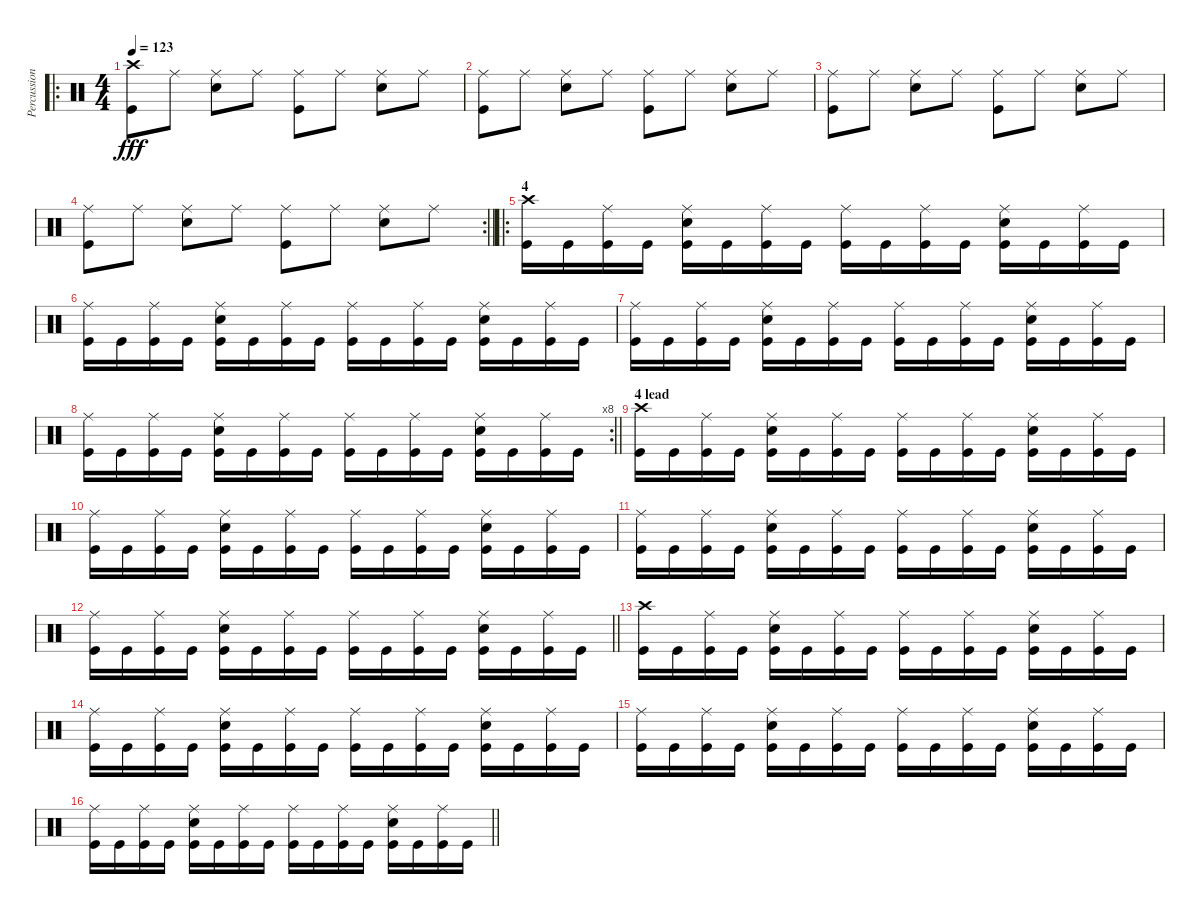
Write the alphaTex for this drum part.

\track ("Percussion" "Percussion") {instrument percussion}
\staff {score}
\articulation defaults
\ro
\ts (4 4)
\section ("" "")
\tempo 123
\clef neutral
\ks c
("Crash high (hit)" "Kick (hit)").8{dy fff} "Ride (middle)".8 ("Ride (middle)" "Snare (hit) 2").8 "Ride (middle)".8 ("Ride (middle)" "Kick (hit)").8 "Ride (middle)".8 ("Ride (middle)" "Snare (hit) 2").8 "Ride (middle)".8 |
("Ride (middle)" "Kick (hit)").8 "Ride (middle)".8 ("Ride (middle)" "Snare (hit) 2").8 "Ride (middle)".8 ("Ride (middle)" "Kick (hit)").8 "Ride (middle)".8 ("Ride (middle)" "Snare (hit) 2").8 "Ride (middle)".8 |
("Ride (middle)" "Kick (hit)").8 "Ride (middle)".8 ("Ride (middle)" "Snare (hit) 2").8 "Ride (middle)".8 ("Ride (middle)" "Kick (hit)").8 "Ride (middle)".8 ("Ride (middle)" "Snare (hit) 2").8 "Ride (middle)".8 |
\rc 2
\barLineRight lightlight
("Ride (middle)" "Kick (hit)").8 "Ride (middle)".8 ("Ride (middle)" "Snare (hit) 2").8 "Ride (middle)".8 ("Ride (middle)" "Kick (hit)").8 "Ride (middle)".8 ("Ride (middle)" "Snare (hit) 2").8 "Ride (middle)".8 |
\ro
\section ("" "4")
("Crash high (hit)" "Kick (hit)").16 "Kick (hit)".16 ("Ride (middle)" "Kick (hit)").16 "Kick (hit)".16 ("Ride (middle)" "Snare (hit) 2" "Kick (hit)").16 "Kick (hit)".16 ("Ride (middle)" "Kick (hit)").16 "Kick (hit)".16 ("Ride (middle)" "Kick (hit)").16 "Kick (hit)".16 ("Ride (middle)" "Kick (hit)").16 "Kick (hit)".16 ("Ride (middle)" "Snare (hit) 2" "Kick (hit)").16 "Kick (hit)".16 ("Ride (middle)" "Kick (hit)").16 "Kick (hit)".16 |
("Ride (middle)" "Kick (hit)").16 "Kick (hit)".16 ("Ride (middle)" "Kick (hit)").16 "Kick (hit)".16 ("Ride (middle)" "Snare (hit) 2" "Kick (hit)").16 "Kick (hit)".16 ("Ride (middle)" "Kick (hit)").16 "Kick (hit)".16 ("Ride (middle)" "Kick (hit)").16 "Kick (hit)".16 ("Ride (middle)" "Kick (hit)").16 "Kick (hit)".16 ("Ride (middle)" "Snare (hit) 2" "Kick (hit)").16 "Kick (hit)".16 ("Ride (middle)" "Kick (hit)").16 "Kick (hit)".16 |
("Ride (middle)" "Kick (hit)").16 "Kick (hit)".16 ("Ride (middle)" "Kick (hit)").16 "Kick (hit)".16 ("Ride (middle)" "Snare (hit) 2" "Kick (hit)").16 "Kick (hit)".16 ("Ride (middle)" "Kick (hit)").16 "Kick (hit)".16 ("Ride (middle)" "Kick (hit)").16 "Kick (hit)".16 ("Ride (middle)" "Kick (hit)").16 "Kick (hit)".16 ("Ride (middle)" "Snare (hit) 2" "Kick (hit)").16 "Kick (hit)".16 ("Ride (middle)" "Kick (hit)").16 "Kick (hit)".16 |
\rc 8
\barLineRight lightlight
("Ride (middle)" "Kick (hit)").16 "Kick (hit)".16 ("Ride (middle)" "Kick (hit)").16 "Kick (hit)".16 ("Ride (middle)" "Snare (hit) 2" "Kick (hit)").16 "Kick (hit)".16 ("Ride (middle)" "Kick (hit)").16 "Kick (hit)".16 ("Ride (middle)" "Kick (hit)").16 "Kick (hit)".16 ("Ride (middle)" "Kick (hit)").16 "Kick (hit)".16 ("Ride (middle)" "Snare (hit) 2" "Kick (hit)").16 "Kick (hit)".16 ("Ride (middle)" "Kick (hit)").16 "Kick (hit)".16 |
\section ("" "4 lead")
("Crash high (hit)" "Kick (hit)").16 "Kick (hit)".16 ("Ride (middle)" "Kick (hit)").16 "Kick (hit)".16 ("Ride (middle)" "Snare (hit) 2" "Kick (hit)").16 "Kick (hit)".16 ("Ride (middle)" "Kick (hit)").16 "Kick (hit)".16 ("Ride (middle)" "Kick (hit)").16 "Kick (hit)".16 ("Ride (middle)" "Kick (hit)").16 "Kick (hit)".16 ("Ride (middle)" "Snare (hit) 2" "Kick (hit)").16 "Kick (hit)".16 ("Ride (middle)" "Kick (hit)").16 "Kick (hit)".16 |
("Ride (middle)" "Kick (hit)").16 "Kick (hit)".16 ("Ride (middle)" "Kick (hit)").16 "Kick (hit)".16 ("Ride (middle)" "Snare (hit) 2" "Kick (hit)").16 "Kick (hit)".16 ("Ride (middle)" "Kick (hit)").16 "Kick (hit)".16 ("Ride (middle)" "Kick (hit)").16 "Kick (hit)".16 ("Ride (middle)" "Kick (hit)").16 "Kick (hit)".16 ("Ride (middle)" "Snare (hit) 2" "Kick (hit)").16 "Kick (hit)".16 ("Ride (middle)" "Kick (hit)").16 "Kick (hit)".16 |
("Ride (middle)" "Kick (hit)").16 "Kick (hit)".16 ("Ride (middle)" "Kick (hit)").16 "Kick (hit)".16 ("Ride (middle)" "Snare (hit) 2" "Kick (hit)").16 "Kick (hit)".16 ("Ride (middle)" "Kick (hit)").16 "Kick (hit)".16 ("Ride (middle)" "Kick (hit)").16 "Kick (hit)".16 ("Ride (middle)" "Kick (hit)").16 "Kick (hit)".16 ("Ride (middle)" "Snare (hit) 2" "Kick (hit)").16 "Kick (hit)".16 ("Ride (middle)" "Kick (hit)").16 "Kick (hit)".16 |
\barLineRight lightlight
("Ride (middle)" "Kick (hit)").16 "Kick (hit)".16 ("Ride (middle)" "Kick (hit)").16 "Kick (hit)".16 ("Ride (middle)" "Snare (hit) 2" "Kick (hit)").16 "Kick (hit)".16 ("Ride (middle)" "Kick (hit)").16 "Kick (hit)".16 ("Ride (middle)" "Kick (hit)").16 "Kick (hit)".16 ("Ride (middle)" "Kick (hit)").16 "Kick (hit)".16 ("Ride (middle)" "Snare (hit) 2" "Kick (hit)").16 "Kick (hit)".16 ("Ride (middle)" "Kick (hit)").16 "Kick (hit)".16 |
\section ("" "")
("Crash high (hit)" "Kick (hit)").16 "Kick (hit)".16 ("Ride (middle)" "Kick (hit)").16 "Kick (hit)".16 ("Ride (middle)" "Snare (hit) 2" "Kick (hit)").16 "Kick (hit)".16 ("Ride (middle)" "Kick (hit)").16 "Kick (hit)".16 ("Ride (middle)" "Kick (hit)").16 "Kick (hit)".16 ("Ride (middle)" "Kick (hit)").16 "Kick (hit)".16 ("Ride (middle)" "Snare (hit) 2" "Kick (hit)").16 "Kick (hit)".16 ("Ride (middle)" "Kick (hit)").16 "Kick (hit)".16 |
("Ride (middle)" "Kick (hit)").16 "Kick (hit)".16 ("Ride (middle)" "Kick (hit)").16 "Kick (hit)".16 ("Ride (middle)" "Snare (hit) 2" "Kick (hit)").16 "Kick (hit)".16 ("Ride (middle)" "Kick (hit)").16 "Kick (hit)".16 ("Ride (middle)" "Kick (hit)").16 "Kick (hit)".16 ("Ride (middle)" "Kick (hit)").16 "Kick (hit)".16 ("Ride (middle)" "Snare (hit) 2" "Kick (hit)").16 "Kick (hit)".16 ("Ride (middle)" "Kick (hit)").16 "Kick (hit)".16 |
("Ride (middle)" "Kick (hit)").16 "Kick (hit)".16 ("Ride (middle)" "Kick (hit)").16 "Kick (hit)".16 ("Ride (middle)" "Snare (hit) 2" "Kick (hit)").16 "Kick (hit)".16 ("Ride (middle)" "Kick (hit)").16 "Kick (hit)".16 ("Ride (middle)" "Kick (hit)").16 "Kick (hit)".16 ("Ride (middle)" "Kick (hit)").16 "Kick (hit)".16 ("Ride (middle)" "Snare (hit) 2" "Kick (hit)").16 "Kick (hit)".16 ("Ride (middle)" "Kick (hit)").16 "Kick (hit)".16 |
\barLineRight lightlight
("Ride (middle)" "Kick (hit)").16 "Kick (hit)".16 ("Ride (middle)" "Kick (hit)").16 "Kick (hit)".16 ("Ride (middle)" "Snare (hit) 2" "Kick (hit)").16 "Kick (hit)".16 ("Ride (middle)" "Kick (hit)").16 "Kick (hit)".16 ("Ride (middle)" "Kick (hit)").16 "Kick (hit)".16 ("Ride (middle)" "Kick (hit)").16 "Kick (hit)".16 ("Ride (middle)" "Snare (hit) 2" "Kick (hit)").16 "Kick (hit)".16 ("Ride (middle)" "Kick (hit)").16 "Kick (hit)".16
